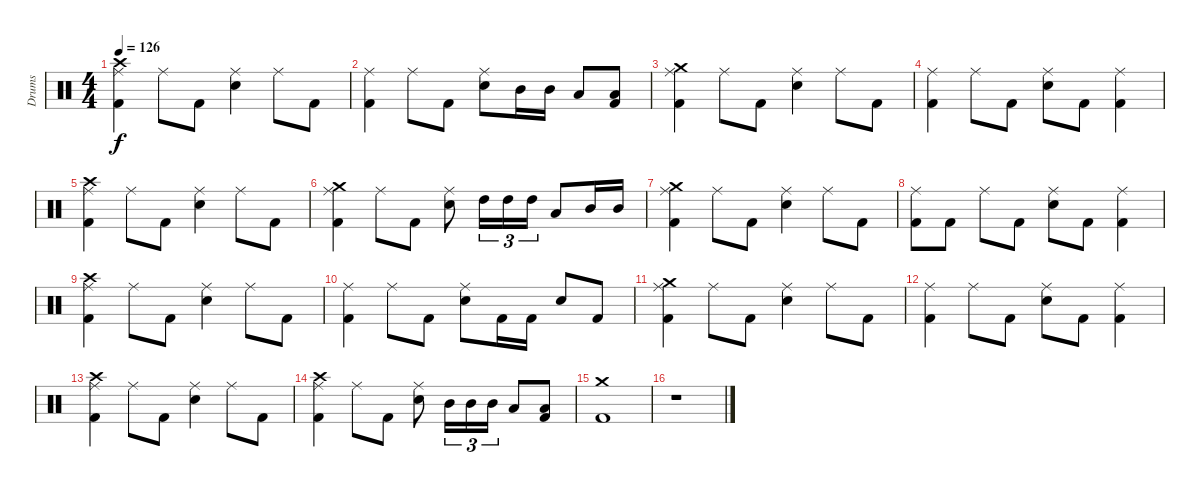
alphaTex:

\track ("Drums" "Drums") {instrument percussion}
\staff {score}
\articulation defaults
\ts (4 4)
\tempo 126
\clef neutral
\ks c
("Kick (hit) 2" "Ride (middle)" "Crash high (hit)").4{dy f} "Ride (middle)".8 "Kick (hit) 2".8 ("Electric Snare (hit)" "Ride (middle)").4 "Ride (middle)".8 "Kick (hit) 2".8 |
("Kick (hit) 2" "Ride (middle)").4 "Ride (middle)".8 "Kick (hit) 2".8 ("Electric Snare (hit)" "Ride (middle)").8 "Mid Tom (hit)".16 "Mid Tom (hit)".16 "Low Tom (hit)".8 ("Kick (hit) 2" "Low Tom (hit)").8 |
("Kick (hit) 2" "Ride (middle)" "Crash medium (hit)").4 "Ride (middle)".8 "Kick (hit) 2".8 ("Electric Snare (hit)" "Ride (middle)").4 "Ride (middle)".8 "Kick (hit) 2".8 |
("Kick (hit) 2" "Ride (middle)").4 "Ride (middle)".8 "Kick (hit) 2".8 ("Electric Snare (hit)" "Ride (middle)").8 "Kick (hit) 2".8 ("Kick (hit) 2" "Ride (middle)").4 |
("Kick (hit) 2" "Ride (middle)" "Crash high (hit)").4 "Ride (middle)".8 "Kick (hit) 2".8 ("Electric Snare (hit)" "Ride (middle)").4 "Ride (middle)".8 "Kick (hit) 2".8 |
("Kick (hit) 2" "Ride (middle)" "Crash medium (hit)").4 "Ride (middle)".8 "Kick (hit) 2".8 ("Electric Snare (hit)" "Ride (middle)").8 "High Tom (hit)".16{tu (3 2)} "High Tom (hit)".16{tu (3 2)} "High Tom (hit)".16{tu (3 2)} "Low Tom (hit)".8 "Mid Tom (hit)".16 "Mid Tom (hit)".16 |
("Kick (hit) 2" "Ride (middle)" "Crash medium (hit)").4 "Ride (middle)".8 "Kick (hit) 2".8 ("Electric Snare (hit)" "Ride (middle)").4 "Ride (middle)".8 "Kick (hit) 2".8 |
("Kick (hit) 2" "Ride (middle)").8 "Kick (hit) 2".8 "Ride (middle)".8 "Kick (hit) 2".8 ("Electric Snare (hit)" "Ride (middle)").8 "Kick (hit) 2".8 ("Kick (hit) 2" "Ride (middle)").4 |
("Kick (hit) 2" "Ride (middle)" "Crash high (hit)").4 "Ride (middle)".8 "Kick (hit) 2".8 ("Electric Snare (hit)" "Ride (middle)").4 "Ride (middle)".8 "Kick (hit) 2".8 |
("Kick (hit) 2" "Ride (middle)").4 "Ride (middle)".8 "Kick (hit) 2".8 ("Electric Snare (hit)" "Ride (middle)").8 "Kick (hit) 2".16 "Kick (hit) 2".16 "Electric Snare (hit)".8 "Kick (hit) 2".8 |
("Kick (hit) 2" "Ride (middle)" "Crash medium (hit)").4 "Ride (middle)".8 "Kick (hit) 2".8 ("Electric Snare (hit)" "Ride (middle)").4 "Ride (middle)".8 "Kick (hit) 2".8 |
("Kick (hit) 2" "Ride (middle)").4 "Ride (middle)".8 "Kick (hit) 2".8 ("Electric Snare (hit)" "Ride (middle)").8 "Kick (hit) 2".8 ("Kick (hit) 2" "Ride (middle)").4 |
("Kick (hit) 2" "Ride (middle)" "Crash high (hit)").4 "Ride (middle)".8 "Kick (hit) 2".8 ("Electric Snare (hit)" "Ride (middle)").4 "Ride (middle)".8 "Kick (hit) 2".8 |
("Kick (hit) 2" "Ride (middle)" "Crash high (hit)").4 "Ride (middle)".8 "Kick (hit) 2".8 ("Electric Snare (hit)" "Ride (middle)").8 "Mid Tom (hit)".16{tu (3 2)} "Mid Tom (hit)".16{tu (3 2)} "Mid Tom (hit)".16{tu (3 2)} "Low Tom (hit)".8 ("Kick (hit) 2" "Low Tom (hit)").8 |
("Kick (hit) 2" "Crash medium (hit)").1 |
r.1
